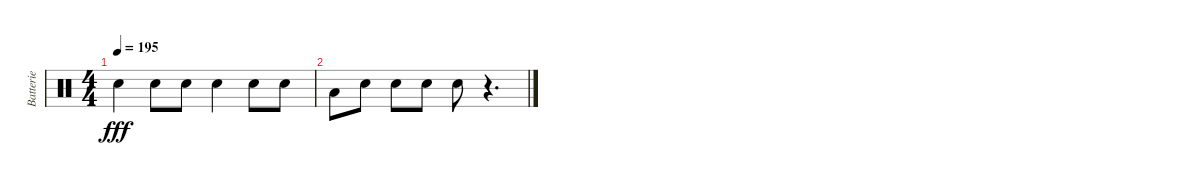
\track ("Batterie" "Batterie") {instrument percussion}
\staff {score}
\articulation defaults
\ts (4 4)
\tempo 195
\clef neutral
\ks c "Electric Snare (hit)".4{dy fff} "Electric Snare (hit)".8 "Electric Snare (hit)".8 "Electric Snare (hit)".4 "Electric Snare (hit)".8 "Electric Snare (hit)".8
|
"Low Tom (hit)".8 "Electric Snare (hit)".8 "Electric Snare (hit)".8 "Electric Snare (hit)".8 "Electric Snare (hit)".8 r.4{d}
